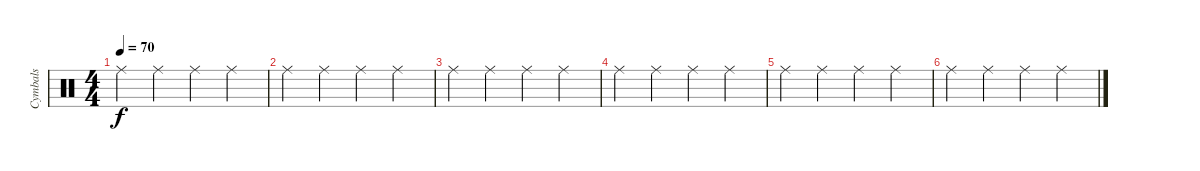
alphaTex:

\track ("Cymbals" "Cymbals") {instrument percussion}
\staff {score}
\articulation defaults
\ts (4 4)
\tempo 70
\clef neutral
\ks c "Ride (middle)".4{dy f} "Ride (middle)".4 "Ride (middle)".4 "Ride (middle)".4
|
"Ride (middle)".4 "Ride (middle)".4 "Ride (middle)".4 "Ride (middle)".4 |
"Ride (middle)".4 "Ride (middle)".4 "Ride (middle)".4 "Ride (middle)".4 |
"Ride (middle)".4 "Ride (middle)".4 "Ride (middle)".4 "Ride (middle)".4 |
"Ride (middle)".4 "Ride (middle)".4 "Ride (middle)".4 "Ride (middle)".4 |
"Ride (middle)".4 "Ride (middle)".4 "Ride (middle)".4 "Ride (middle)".4
